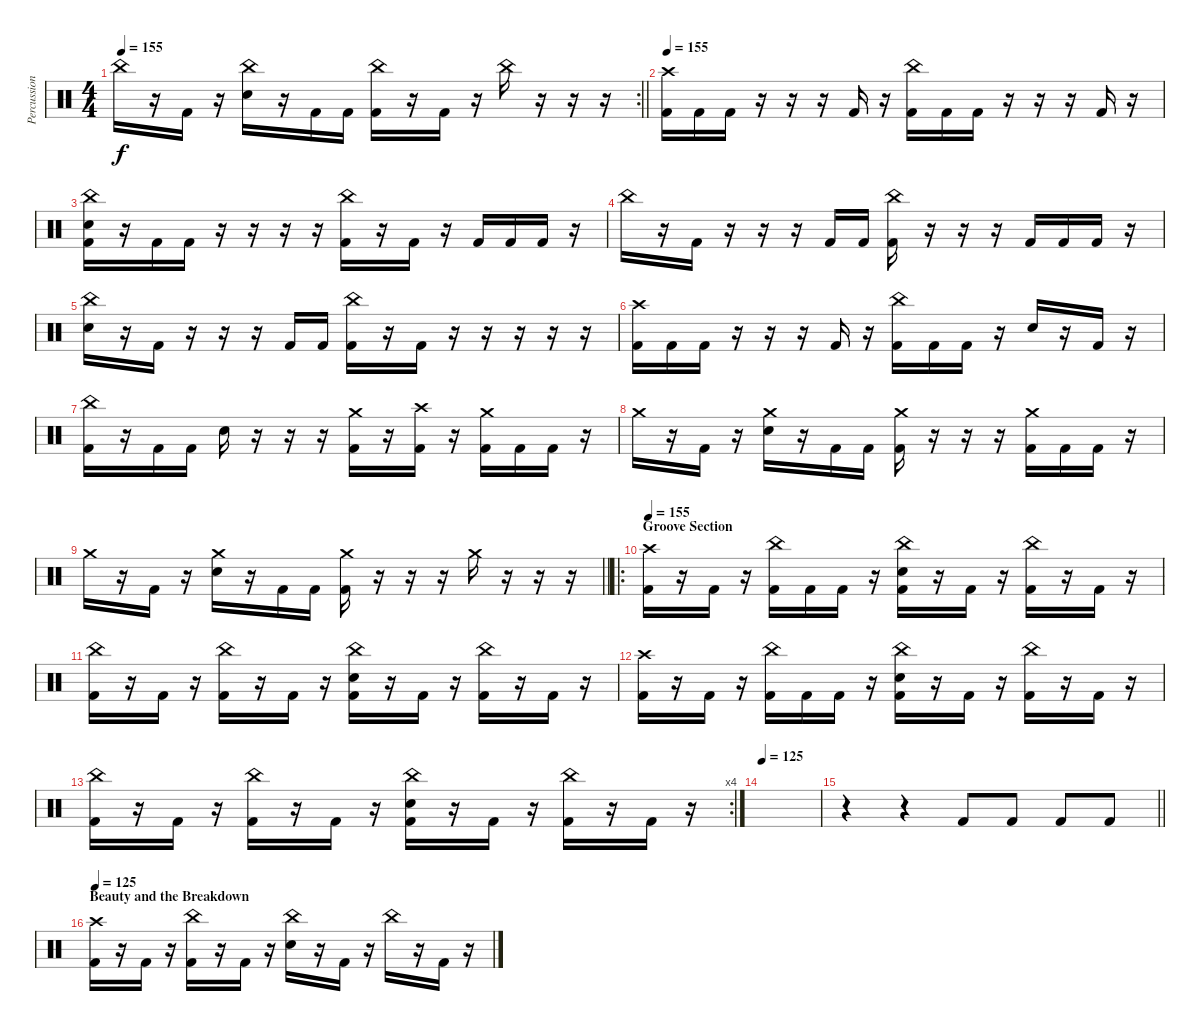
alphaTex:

\track ("Percussion" "Percussion") {instrument percussion}
\staff {score}
\articulation defaults
\rc 2
\ts (4 4)
\tempo 155
\clef neutral
\barLineRight lightlight
\ks c "China (hit)".16{dy f}
r.16 "Kick (hit) 2".16 r.16 ("China (hit)" "Electric Snare (hit)").16 r.16 "Kick (hit) 2".16 "Kick (hit) 2".16 ("China (hit)" "Kick (hit) 2").16 r.16 "Kick (hit) 2".16 r.16 "China (hit)".16 r.16 r.16 r.16 |
\tempo 155
("Crash high (hit)" "Kick (hit) 2").16 "Kick (hit) 2".16 "Kick (hit) 2".16 r.16 r.16 r.16 "Kick (hit) 2".16 r.16 ("China (hit)" "Kick (hit) 2").16 "Kick (hit) 2".16 "Kick (hit) 2".16 r.16 r.16 r.16 "Kick (hit) 2".16 r.16 |
("China (hit)" "Electric Snare (hit)" "Kick (hit) 2").16 r.16 "Kick (hit) 2".16 "Kick (hit) 2".16 r.16 r.16 r.16 r.16 ("China (hit)" "Kick (hit) 2").16 r.16 "Kick (hit) 2".16 r.16 "Kick (hit) 2".16 "Kick (hit) 2".16 "Kick (hit) 2".16 r.16 |
"China (hit)".16 r.16 "Kick (hit) 2".16 r.16 r.16 r.16 "Kick (hit) 2".16 "Kick (hit) 2".16 ("China (hit)" "Kick (hit) 2").16 r.16 r.16 r.16 "Kick (hit) 2".16 "Kick (hit) 2".16 "Kick (hit) 2".16 r.16 |
("China (hit)" "Electric Snare (hit)").16 r.16 "Kick (hit) 2".16 r.16 r.16 r.16 "Kick (hit) 2".16 "Kick (hit) 2".16 ("China (hit)" "Kick (hit) 2").16 r.16 "Kick (hit) 2".16 r.16 r.16 r.16 r.16 r.16 |
("Crash high (hit)" "Kick (hit) 2").16 "Kick (hit) 2".16 "Kick (hit) 2".16 r.16 r.16 r.16 "Kick (hit) 2".16 r.16 ("China (hit)" "Kick (hit) 2").16 "Kick (hit) 2".16 "Kick (hit) 2".16 r.16 "Electric Snare (hit)".16 r.16 "Kick (hit) 2".16 r.16 |
("China (hit)" "Kick (hit) 2").16 r.16 "Kick (hit) 2".16 "Kick (hit) 2".16 "Electric Snare (hit)".16 r.16 r.16 r.16 ("Crash medium (hit)" "Kick (hit) 2").16 r.16 ("Crash high (hit)" "Kick (hit) 2").16 r.16 ("Crash medium (hit)" "Kick (hit) 2").16 "Kick (hit) 2".16 "Kick (hit) 2".16 r.16 |
"Crash medium (hit)".16 r.16 "Kick (hit) 2".16 r.16 ("Crash medium (hit)" "Electric Snare (hit)").16 r.16 "Kick (hit) 2".16 "Kick (hit) 2".16 ("Crash medium (hit)" "Kick (hit) 2").16 r.16 r.16 r.16 ("Crash medium (hit)" "Kick (hit) 2").16 "Kick (hit) 2".16 "Kick (hit) 2".16 r.16 |
\barLineRight lightlight "Crash medium (hit)".16
r.16 "Kick (hit) 2".16 r.16 ("Crash medium (hit)" "Electric Snare (hit)").16 r.16 "Kick (hit) 2".16 "Kick (hit) 2".16 ("Crash medium (hit)" "Kick (hit) 2").16 r.16 r.16 r.16 "Crash medium (hit)".16 r.16 r.16 r.16 |
\ro
\section ("" "Groove Section")
\tempo 155
("Crash high (hit)" "Kick (hit) 2").16 r.16 "Kick (hit) 2".16 r.16 ("China (hit)" "Kick (hit) 2").16 "Kick (hit) 2".16 "Kick (hit) 2".16 r.16 ("China (hit)" "Electric Snare (hit)" "Kick (hit) 2").16 r.16 "Kick (hit) 2".16 r.16 ("China (hit)" "Kick (hit) 2").16 r.16 "Kick (hit) 2".16 r.16 |
("China (hit)" "Kick (hit) 2").16 r.16 "Kick (hit) 2".16 r.16 ("China (hit)" "Kick (hit) 2").16 r.16 "Kick (hit) 2".16 r.16 ("China (hit)" "Electric Snare (hit)" "Kick (hit) 2").16 r.16 "Kick (hit) 2".16 r.16 ("China (hit)" "Kick (hit) 2").16 r.16 "Kick (hit) 2".16 r.16 |
("Crash high (hit)" "Kick (hit) 2").16 r.16 "Kick (hit) 2".16 r.16 ("China (hit)" "Kick (hit) 2").16 "Kick (hit) 2".16 "Kick (hit) 2".16 r.16 ("China (hit)" "Electric Snare (hit)" "Kick (hit) 2").16 r.16 "Kick (hit) 2".16 r.16 ("China (hit)" "Kick (hit) 2").16 r.16 "Kick (hit) 2".16 r.16 |
\rc 4
("China (hit)" "Kick (hit) 2").16 r.16 "Kick (hit) 2".16 r.16 ("China (hit)" "Kick (hit) 2").16 r.16 "Kick (hit) 2".16 r.16 ("China (hit)" "Electric Snare (hit)" "Kick (hit) 2").16 r.16 "Kick (hit) 2".16 r.16 ("China (hit)" "Kick (hit) 2").16 r.16 "Kick (hit) 2".16 r.16 |
\tempo 125
|
\barLineRight lightlight
r.4 r.4 "Kick (hit) 2".8 "Kick (hit) 2".8 "Kick (hit) 2".8 "Kick (hit) 2".8 |
\section ("" "Beauty and the Breakdown")
\tempo 125
("Crash high (hit)" "Kick (hit) 2").16 r.16 "Kick (hit) 2".16 r.16 ("China (hit)" "Kick (hit) 2").16 r.16 "Kick (hit) 2".16 r.16 ("China (hit)" "Electric Snare (hit)").16 r.16 "Kick (hit) 2".16 r.16 "China (hit)".16 r.16 "Kick (hit) 2".16 r.16
